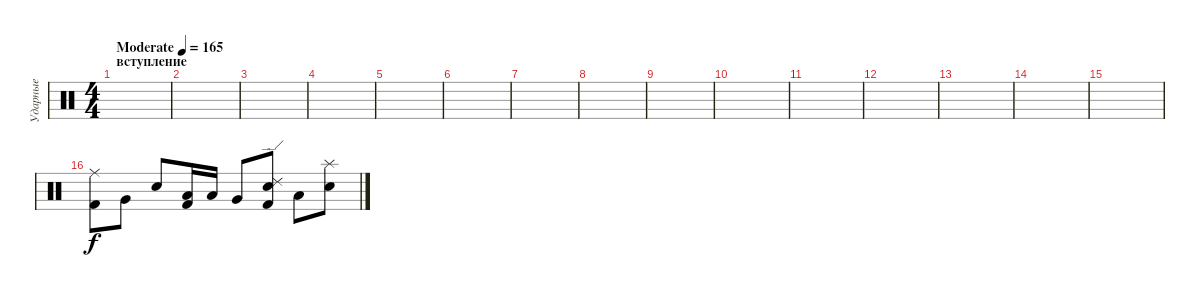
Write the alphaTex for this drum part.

\track ("Ударные" "Ударные") {instrument percussion}
\staff {score}
\articulation defaults
\ts (4 4)
\section ("" "вступление")
\tempo (165 "Moderate")
\clef neutral
\ks c
|
|
|
|
|
|
|
|
|
|
|
|
|
|
|
("Ride (middle)" "Kick (hit) 2").8 "Very Low Tom (hit)".8 "Snare (hit) 2".8 ("Low Tom (hit)" "Kick (hit) 2").16 "Low Tom (hit)".16 "Very Low Tom (hit)".8 ("Ride (edge) 2" "Snare (hit) 2" "Kick (hit) 2").8 "Low Tom (hit)".8 ("Splash (hit)" "Snare (hit) 2").8
